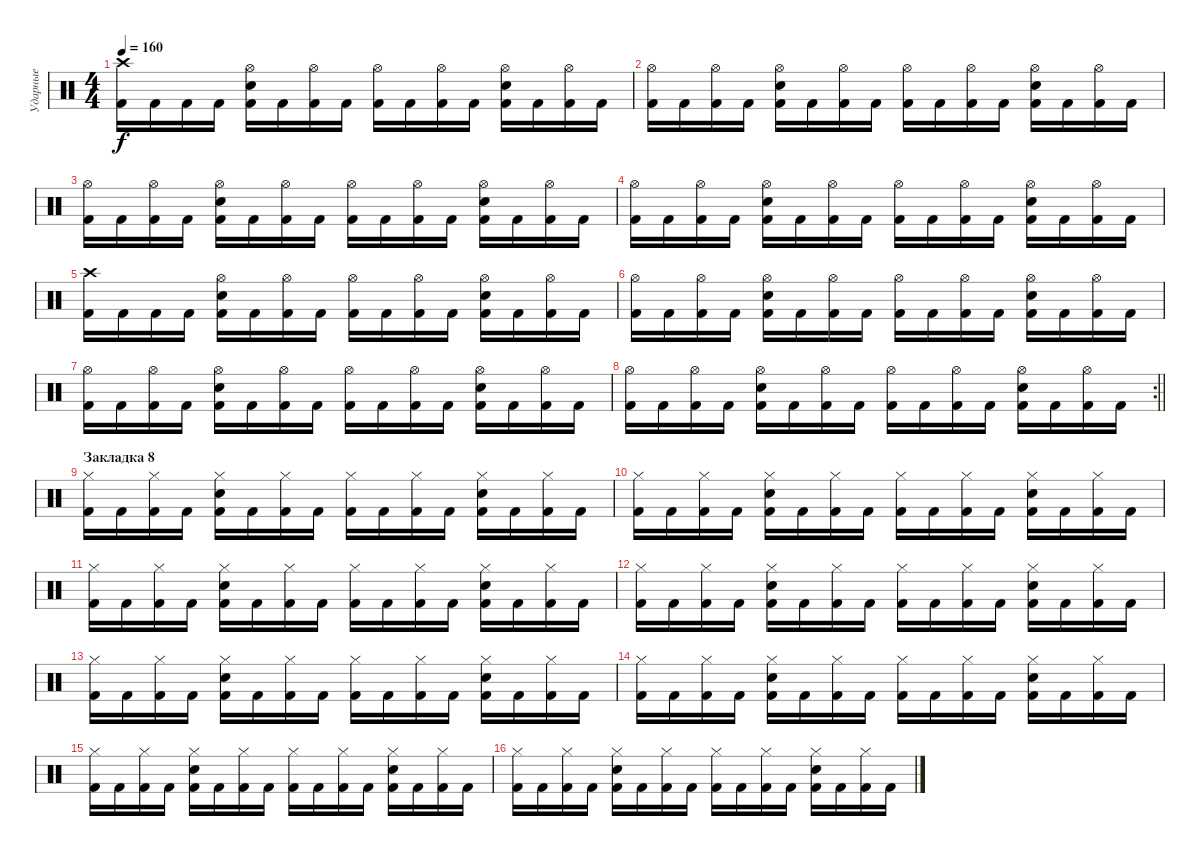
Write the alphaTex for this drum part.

\track ("Ударные" "Ударные") {instrument percussion}
\staff {score}
\articulation defaults
\ts (4 4)
\tempo 160
\clef neutral
\ks c
("Crash high (hit)" "Kick (hit) 2").16{dy f} "Kick (hit) 2".16 "Kick (hit) 2".16 "Kick (hit) 2".16 ("Electric Snare (hit)" "Hi-Hat (open)" "Kick (hit) 2").16 "Kick (hit) 2".16 ("Hi-Hat (open)" "Kick (hit) 2").16 "Kick (hit) 2".16 ("Hi-Hat (open)" "Kick (hit) 2").16 "Kick (hit) 2".16 ("Hi-Hat (open)" "Kick (hit) 2").16 "Kick (hit) 2".16 ("Electric Snare (hit)" "Hi-Hat (open)" "Kick (hit) 2").16 "Kick (hit) 2".16 ("Hi-Hat (open)" "Kick (hit) 2").16 "Kick (hit) 2".16 |
("Hi-Hat (open)" "Kick (hit) 2").16 "Kick (hit) 2".16 ("Hi-Hat (open)" "Kick (hit) 2").16 "Kick (hit) 2".16 ("Electric Snare (hit)" "Hi-Hat (open)" "Kick (hit) 2").16 "Kick (hit) 2".16 ("Hi-Hat (open)" "Kick (hit) 2").16 "Kick (hit) 2".16 ("Hi-Hat (open)" "Kick (hit) 2").16 "Kick (hit) 2".16 ("Hi-Hat (open)" "Kick (hit) 2").16 "Kick (hit) 2".16 ("Electric Snare (hit)" "Hi-Hat (open)" "Kick (hit) 2").16 "Kick (hit) 2".16 ("Hi-Hat (open)" "Kick (hit) 2").16 "Kick (hit) 2".16 |
("Hi-Hat (open)" "Kick (hit) 2").16 "Kick (hit) 2".16 ("Hi-Hat (open)" "Kick (hit) 2").16 "Kick (hit) 2".16 ("Electric Snare (hit)" "Hi-Hat (open)" "Kick (hit) 2").16 "Kick (hit) 2".16 ("Hi-Hat (open)" "Kick (hit) 2").16 "Kick (hit) 2".16 ("Hi-Hat (open)" "Kick (hit) 2").16 "Kick (hit) 2".16 ("Hi-Hat (open)" "Kick (hit) 2").16 "Kick (hit) 2".16 ("Electric Snare (hit)" "Hi-Hat (open)" "Kick (hit) 2").16 "Kick (hit) 2".16 ("Hi-Hat (open)" "Kick (hit) 2").16 "Kick (hit) 2".16 |
("Hi-Hat (open)" "Kick (hit) 2").16 "Kick (hit) 2".16 ("Hi-Hat (open)" "Kick (hit) 2").16 "Kick (hit) 2".16 ("Electric Snare (hit)" "Hi-Hat (open)" "Kick (hit) 2").16 "Kick (hit) 2".16 ("Hi-Hat (open)" "Kick (hit) 2").16 "Kick (hit) 2".16 ("Hi-Hat (open)" "Kick (hit) 2").16 "Kick (hit) 2".16 ("Hi-Hat (open)" "Kick (hit) 2").16 "Kick (hit) 2".16 ("Electric Snare (hit)" "Hi-Hat (open)" "Kick (hit) 2").16 "Kick (hit) 2".16 ("Hi-Hat (open)" "Kick (hit) 2").16 "Kick (hit) 2".16 |
("Crash high (hit)" "Kick (hit) 2").16 "Kick (hit) 2".16 "Kick (hit) 2".16 "Kick (hit) 2".16 ("Electric Snare (hit)" "Hi-Hat (open)" "Kick (hit) 2").16 "Kick (hit) 2".16 ("Hi-Hat (open)" "Kick (hit) 2").16 "Kick (hit) 2".16 ("Hi-Hat (open)" "Kick (hit) 2").16 "Kick (hit) 2".16 ("Hi-Hat (open)" "Kick (hit) 2").16 "Kick (hit) 2".16 ("Electric Snare (hit)" "Hi-Hat (open)" "Kick (hit) 2").16 "Kick (hit) 2".16 ("Hi-Hat (open)" "Kick (hit) 2").16 "Kick (hit) 2".16 |
("Hi-Hat (open)" "Kick (hit) 2").16 "Kick (hit) 2".16 ("Hi-Hat (open)" "Kick (hit) 2").16 "Kick (hit) 2".16 ("Electric Snare (hit)" "Hi-Hat (open)" "Kick (hit) 2").16 "Kick (hit) 2".16 ("Hi-Hat (open)" "Kick (hit) 2").16 "Kick (hit) 2".16 ("Hi-Hat (open)" "Kick (hit) 2").16 "Kick (hit) 2".16 ("Hi-Hat (open)" "Kick (hit) 2").16 "Kick (hit) 2".16 ("Electric Snare (hit)" "Hi-Hat (open)" "Kick (hit) 2").16 "Kick (hit) 2".16 ("Hi-Hat (open)" "Kick (hit) 2").16 "Kick (hit) 2".16 |
("Hi-Hat (open)" "Kick (hit) 2").16 "Kick (hit) 2".16 ("Hi-Hat (open)" "Kick (hit) 2").16 "Kick (hit) 2".16 ("Electric Snare (hit)" "Hi-Hat (open)" "Kick (hit) 2").16 "Kick (hit) 2".16 ("Hi-Hat (open)" "Kick (hit) 2").16 "Kick (hit) 2".16 ("Hi-Hat (open)" "Kick (hit) 2").16 "Kick (hit) 2".16 ("Hi-Hat (open)" "Kick (hit) 2").16 "Kick (hit) 2".16 ("Electric Snare (hit)" "Hi-Hat (open)" "Kick (hit) 2").16 "Kick (hit) 2".16 ("Hi-Hat (open)" "Kick (hit) 2").16 "Kick (hit) 2".16 |
\rc 2
\barLineRight lightlight
("Hi-Hat (open)" "Kick (hit) 2").16 "Kick (hit) 2".16 ("Hi-Hat (open)" "Kick (hit) 2").16 "Kick (hit) 2".16 ("Electric Snare (hit)" "Hi-Hat (open)" "Kick (hit) 2").16 "Kick (hit) 2".16 ("Hi-Hat (open)" "Kick (hit) 2").16 "Kick (hit) 2".16 ("Hi-Hat (open)" "Kick (hit) 2").16 "Kick (hit) 2".16 ("Hi-Hat (open)" "Kick (hit) 2").16 "Kick (hit) 2".16 ("Electric Snare (hit)" "Hi-Hat (open)" "Kick (hit) 2").16 "Kick (hit) 2".16 ("Hi-Hat (open)" "Kick (hit) 2").16 "Kick (hit) 2".16 |
\section ("" "Закладка 8")
("Hi-Hat (closed)" "Kick (hit) 2").16 "Kick (hit) 2".16 ("Hi-Hat (closed)" "Kick (hit) 2").16 "Kick (hit) 2".16 ("Electric Snare (hit)" "Hi-Hat (closed)" "Kick (hit) 2").16 "Kick (hit) 2".16 ("Hi-Hat (closed)" "Kick (hit) 2").16 "Kick (hit) 2".16 ("Hi-Hat (closed)" "Kick (hit) 2").16 "Kick (hit) 2".16 ("Hi-Hat (closed)" "Kick (hit) 2").16 "Kick (hit) 2".16 ("Electric Snare (hit)" "Hi-Hat (closed)" "Kick (hit) 2").16 "Kick (hit) 2".16 ("Hi-Hat (closed)" "Kick (hit) 2").16 "Kick (hit) 2".16 |
("Hi-Hat (closed)" "Kick (hit) 2").16 "Kick (hit) 2".16 ("Hi-Hat (closed)" "Kick (hit) 2").16 "Kick (hit) 2".16 ("Electric Snare (hit)" "Hi-Hat (closed)" "Kick (hit) 2").16 "Kick (hit) 2".16 ("Hi-Hat (closed)" "Kick (hit) 2").16 "Kick (hit) 2".16 ("Hi-Hat (closed)" "Kick (hit) 2").16 "Kick (hit) 2".16 ("Hi-Hat (closed)" "Kick (hit) 2").16 "Kick (hit) 2".16 ("Electric Snare (hit)" "Hi-Hat (closed)" "Kick (hit) 2").16 "Kick (hit) 2".16 ("Hi-Hat (closed)" "Kick (hit) 2").16 "Kick (hit) 2".16 |
("Hi-Hat (closed)" "Kick (hit) 2").16 "Kick (hit) 2".16 ("Hi-Hat (closed)" "Kick (hit) 2").16 "Kick (hit) 2".16 ("Electric Snare (hit)" "Hi-Hat (closed)" "Kick (hit) 2").16 "Kick (hit) 2".16 ("Hi-Hat (closed)" "Kick (hit) 2").16 "Kick (hit) 2".16 ("Hi-Hat (closed)" "Kick (hit) 2").16 "Kick (hit) 2".16 ("Hi-Hat (closed)" "Kick (hit) 2").16 "Kick (hit) 2".16 ("Electric Snare (hit)" "Hi-Hat (closed)" "Kick (hit) 2").16 "Kick (hit) 2".16 ("Hi-Hat (closed)" "Kick (hit) 2").16 "Kick (hit) 2".16 |
("Hi-Hat (closed)" "Kick (hit) 2").16 "Kick (hit) 2".16 ("Hi-Hat (closed)" "Kick (hit) 2").16 "Kick (hit) 2".16 ("Electric Snare (hit)" "Hi-Hat (closed)" "Kick (hit) 2").16 "Kick (hit) 2".16 ("Hi-Hat (closed)" "Kick (hit) 2").16 "Kick (hit) 2".16 ("Hi-Hat (closed)" "Kick (hit) 2").16 "Kick (hit) 2".16 ("Hi-Hat (closed)" "Kick (hit) 2").16 "Kick (hit) 2".16 ("Electric Snare (hit)" "Hi-Hat (closed)" "Kick (hit) 2").16 "Kick (hit) 2".16 ("Hi-Hat (closed)" "Kick (hit) 2").16 "Kick (hit) 2".16 |
("Hi-Hat (closed)" "Kick (hit) 2").16 "Kick (hit) 2".16 ("Hi-Hat (closed)" "Kick (hit) 2").16 "Kick (hit) 2".16 ("Electric Snare (hit)" "Hi-Hat (closed)" "Kick (hit) 2").16 "Kick (hit) 2".16 ("Hi-Hat (closed)" "Kick (hit) 2").16 "Kick (hit) 2".16 ("Hi-Hat (closed)" "Kick (hit) 2").16 "Kick (hit) 2".16 ("Hi-Hat (closed)" "Kick (hit) 2").16 "Kick (hit) 2".16 ("Electric Snare (hit)" "Hi-Hat (closed)" "Kick (hit) 2").16 "Kick (hit) 2".16 ("Hi-Hat (closed)" "Kick (hit) 2").16 "Kick (hit) 2".16 |
("Hi-Hat (closed)" "Kick (hit) 2").16 "Kick (hit) 2".16 ("Hi-Hat (closed)" "Kick (hit) 2").16 "Kick (hit) 2".16 ("Electric Snare (hit)" "Hi-Hat (closed)" "Kick (hit) 2").16 "Kick (hit) 2".16 ("Hi-Hat (closed)" "Kick (hit) 2").16 "Kick (hit) 2".16 ("Hi-Hat (closed)" "Kick (hit) 2").16 "Kick (hit) 2".16 ("Hi-Hat (closed)" "Kick (hit) 2").16 "Kick (hit) 2".16 ("Electric Snare (hit)" "Hi-Hat (closed)" "Kick (hit) 2").16 "Kick (hit) 2".16 ("Hi-Hat (closed)" "Kick (hit) 2").16 "Kick (hit) 2".16 |
("Hi-Hat (closed)" "Kick (hit) 2").16 "Kick (hit) 2".16 ("Hi-Hat (closed)" "Kick (hit) 2").16 "Kick (hit) 2".16 ("Electric Snare (hit)" "Hi-Hat (closed)" "Kick (hit) 2").16 "Kick (hit) 2".16 ("Hi-Hat (closed)" "Kick (hit) 2").16 "Kick (hit) 2".16 ("Hi-Hat (closed)" "Kick (hit) 2").16 "Kick (hit) 2".16 ("Hi-Hat (closed)" "Kick (hit) 2").16 "Kick (hit) 2".16 ("Electric Snare (hit)" "Hi-Hat (closed)" "Kick (hit) 2").16 "Kick (hit) 2".16 ("Hi-Hat (closed)" "Kick (hit) 2").16 "Kick (hit) 2".16 |
("Hi-Hat (closed)" "Kick (hit) 2").16 "Kick (hit) 2".16 ("Hi-Hat (closed)" "Kick (hit) 2").16 "Kick (hit) 2".16 ("Electric Snare (hit)" "Hi-Hat (closed)" "Kick (hit) 2").16 "Kick (hit) 2".16 ("Hi-Hat (closed)" "Kick (hit) 2").16 "Kick (hit) 2".16 ("Hi-Hat (closed)" "Kick (hit) 2").16 "Kick (hit) 2".16 ("Hi-Hat (closed)" "Kick (hit) 2").16 "Kick (hit) 2".16 ("Electric Snare (hit)" "Hi-Hat (closed)" "Kick (hit) 2").16 "Kick (hit) 2".16 ("Hi-Hat (closed)" "Kick (hit) 2").16 "Kick (hit) 2".16
